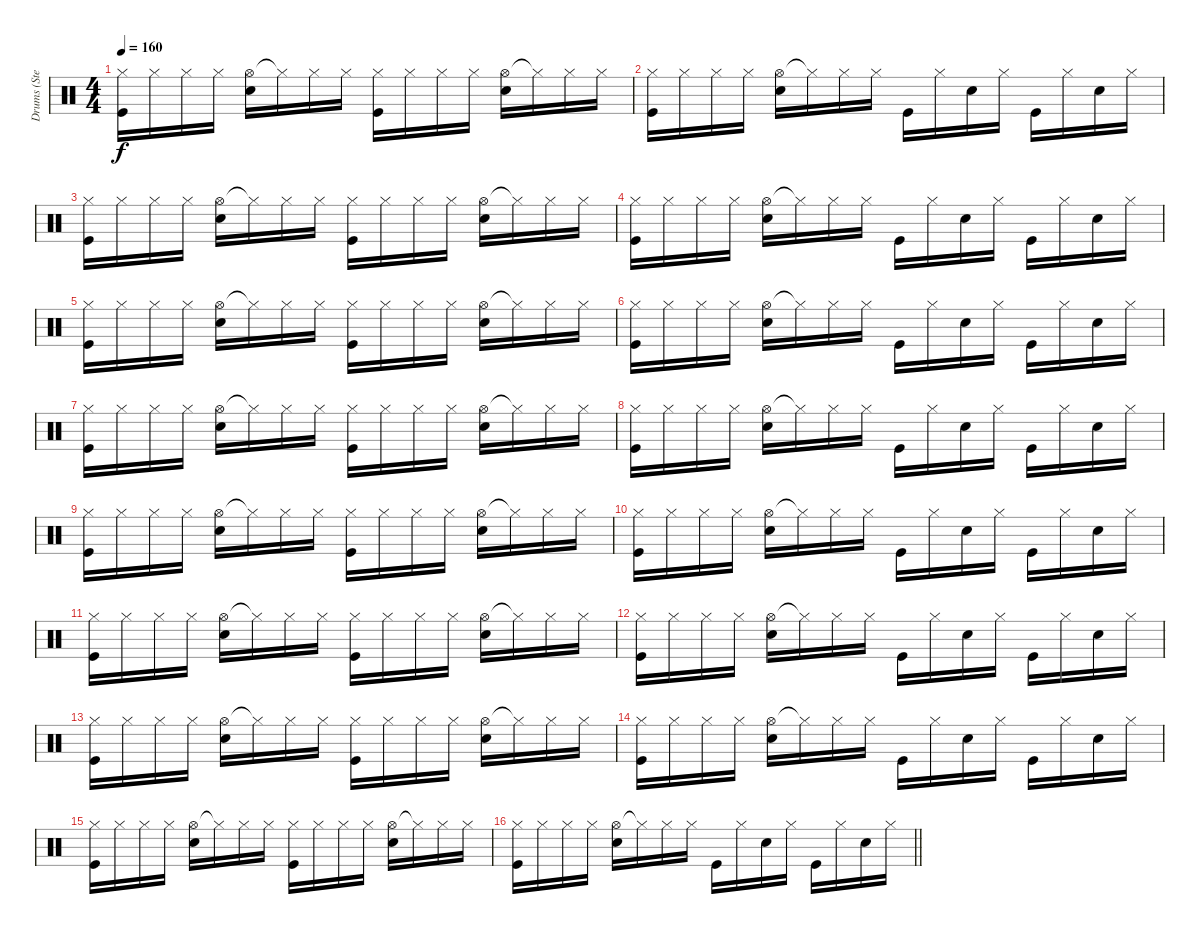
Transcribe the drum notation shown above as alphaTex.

\track ("Drums (Stephen Morris)" "Drums (Ste") {instrument percussion}
\staff {score}
\articulation defaults
\ts (4 4)
\tempo 160
\clef neutral
\ks c
("Hi-Hat (closed)" "Kick (hit)").16{dy f} "Hi-Hat (closed)".16 "Hi-Hat (closed)".16 "Hi-Hat (closed)".16 ("Hi-Hat (open)" "Electric Snare (hit)").16 "Hi-Hat (closed)"{t}.16 "Hi-Hat (closed)".16 "Hi-Hat (closed)".16 ("Hi-Hat (closed)" "Kick (hit)").16 "Hi-Hat (closed)".16 "Hi-Hat (closed)".16 "Hi-Hat (closed)".16 ("Hi-Hat (open)" "Electric Snare (hit)").16 "Hi-Hat (closed)"{t}.16 "Hi-Hat (closed)".16 "Hi-Hat (closed)".16 |
("Hi-Hat (closed)" "Kick (hit)").16 "Hi-Hat (closed)".16 "Hi-Hat (closed)".16 "Hi-Hat (closed)".16 ("Hi-Hat (open)" "Electric Snare (hit)").16 "Hi-Hat (closed)"{t}.16 "Hi-Hat (closed)".16 "Hi-Hat (closed)".16 "Kick (hit)".16 "Hi-Hat (closed)".16 "Electric Snare (hit)".16 "Hi-Hat (closed)".16 "Kick (hit)".16 "Hi-Hat (closed)".16 "Electric Snare (hit)".16 "Hi-Hat (closed)".16 |
("Hi-Hat (closed)" "Kick (hit)").16 "Hi-Hat (closed)".16 "Hi-Hat (closed)".16 "Hi-Hat (closed)".16 ("Hi-Hat (open)" "Electric Snare (hit)").16 "Hi-Hat (closed)"{t}.16 "Hi-Hat (closed)".16 "Hi-Hat (closed)".16 ("Hi-Hat (closed)" "Kick (hit)").16 "Hi-Hat (closed)".16 "Hi-Hat (closed)".16 "Hi-Hat (closed)".16 ("Hi-Hat (open)" "Electric Snare (hit)").16 "Hi-Hat (closed)"{t}.16 "Hi-Hat (closed)".16 "Hi-Hat (closed)".16 |
("Hi-Hat (closed)" "Kick (hit)").16 "Hi-Hat (closed)".16 "Hi-Hat (closed)".16 "Hi-Hat (closed)".16 ("Hi-Hat (open)" "Electric Snare (hit)").16 "Hi-Hat (closed)"{t}.16 "Hi-Hat (closed)".16 "Hi-Hat (closed)".16 "Kick (hit)".16 "Hi-Hat (closed)".16 "Electric Snare (hit)".16 "Hi-Hat (closed)".16 "Kick (hit)".16 "Hi-Hat (closed)".16 "Electric Snare (hit)".16 "Hi-Hat (closed)".16 |
("Hi-Hat (closed)" "Kick (hit)").16 "Hi-Hat (closed)".16 "Hi-Hat (closed)".16 "Hi-Hat (closed)".16 ("Hi-Hat (open)" "Electric Snare (hit)").16 "Hi-Hat (closed)"{t}.16 "Hi-Hat (closed)".16 "Hi-Hat (closed)".16 ("Hi-Hat (closed)" "Kick (hit)").16 "Hi-Hat (closed)".16 "Hi-Hat (closed)".16 "Hi-Hat (closed)".16 ("Hi-Hat (open)" "Electric Snare (hit)").16 "Hi-Hat (closed)"{t}.16 "Hi-Hat (closed)".16 "Hi-Hat (closed)".16 |
("Hi-Hat (closed)" "Kick (hit)").16 "Hi-Hat (closed)".16 "Hi-Hat (closed)".16 "Hi-Hat (closed)".16 ("Hi-Hat (open)" "Electric Snare (hit)").16 "Hi-Hat (closed)"{t}.16 "Hi-Hat (closed)".16 "Hi-Hat (closed)".16 "Kick (hit)".16 "Hi-Hat (closed)".16 "Electric Snare (hit)".16 "Hi-Hat (closed)".16 "Kick (hit)".16 "Hi-Hat (closed)".16 "Electric Snare (hit)".16 "Hi-Hat (closed)".16 |
("Hi-Hat (closed)" "Kick (hit)").16 "Hi-Hat (closed)".16 "Hi-Hat (closed)".16 "Hi-Hat (closed)".16 ("Hi-Hat (open)" "Electric Snare (hit)").16 "Hi-Hat (closed)"{t}.16 "Hi-Hat (closed)".16 "Hi-Hat (closed)".16 ("Hi-Hat (closed)" "Kick (hit)").16 "Hi-Hat (closed)".16 "Hi-Hat (closed)".16 "Hi-Hat (closed)".16 ("Hi-Hat (open)" "Electric Snare (hit)").16 "Hi-Hat (closed)"{t}.16 "Hi-Hat (closed)".16 "Hi-Hat (closed)".16 |
("Hi-Hat (closed)" "Kick (hit)").16 "Hi-Hat (closed)".16 "Hi-Hat (closed)".16 "Hi-Hat (closed)".16 ("Hi-Hat (open)" "Electric Snare (hit)").16 "Hi-Hat (closed)"{t}.16 "Hi-Hat (closed)".16 "Hi-Hat (closed)".16 "Kick (hit)".16 "Hi-Hat (closed)".16 "Electric Snare (hit)".16 "Hi-Hat (closed)".16 "Kick (hit)".16 "Hi-Hat (closed)".16 "Electric Snare (hit)".16 "Hi-Hat (closed)".16 |
("Hi-Hat (closed)" "Kick (hit)").16 "Hi-Hat (closed)".16 "Hi-Hat (closed)".16 "Hi-Hat (closed)".16 ("Hi-Hat (open)" "Electric Snare (hit)").16 "Hi-Hat (closed)"{t}.16 "Hi-Hat (closed)".16 "Hi-Hat (closed)".16 ("Hi-Hat (closed)" "Kick (hit)").16 "Hi-Hat (closed)".16 "Hi-Hat (closed)".16 "Hi-Hat (closed)".16 ("Hi-Hat (open)" "Electric Snare (hit)").16 "Hi-Hat (closed)"{t}.16 "Hi-Hat (closed)".16 "Hi-Hat (closed)".16 |
("Hi-Hat (closed)" "Kick (hit)").16 "Hi-Hat (closed)".16 "Hi-Hat (closed)".16 "Hi-Hat (closed)".16 ("Hi-Hat (open)" "Electric Snare (hit)").16 "Hi-Hat (closed)"{t}.16 "Hi-Hat (closed)".16 "Hi-Hat (closed)".16 "Kick (hit)".16 "Hi-Hat (closed)".16 "Electric Snare (hit)".16 "Hi-Hat (closed)".16 "Kick (hit)".16 "Hi-Hat (closed)".16 "Electric Snare (hit)".16 "Hi-Hat (closed)".16 |
("Hi-Hat (closed)" "Kick (hit)").16 "Hi-Hat (closed)".16 "Hi-Hat (closed)".16 "Hi-Hat (closed)".16 ("Hi-Hat (open)" "Electric Snare (hit)").16 "Hi-Hat (closed)"{t}.16 "Hi-Hat (closed)".16 "Hi-Hat (closed)".16 ("Hi-Hat (closed)" "Kick (hit)").16 "Hi-Hat (closed)".16 "Hi-Hat (closed)".16 "Hi-Hat (closed)".16 ("Hi-Hat (open)" "Electric Snare (hit)").16 "Hi-Hat (closed)"{t}.16 "Hi-Hat (closed)".16 "Hi-Hat (closed)".16 |
("Hi-Hat (closed)" "Kick (hit)").16 "Hi-Hat (closed)".16 "Hi-Hat (closed)".16 "Hi-Hat (closed)".16 ("Hi-Hat (open)" "Electric Snare (hit)").16 "Hi-Hat (closed)"{t}.16 "Hi-Hat (closed)".16 "Hi-Hat (closed)".16 "Kick (hit)".16 "Hi-Hat (closed)".16 "Electric Snare (hit)".16 "Hi-Hat (closed)".16 "Kick (hit)".16 "Hi-Hat (closed)".16 "Electric Snare (hit)".16 "Hi-Hat (closed)".16 |
("Hi-Hat (closed)" "Kick (hit)").16 "Hi-Hat (closed)".16 "Hi-Hat (closed)".16 "Hi-Hat (closed)".16 ("Hi-Hat (open)" "Electric Snare (hit)").16 "Hi-Hat (closed)"{t}.16 "Hi-Hat (closed)".16 "Hi-Hat (closed)".16 ("Hi-Hat (closed)" "Kick (hit)").16 "Hi-Hat (closed)".16 "Hi-Hat (closed)".16 "Hi-Hat (closed)".16 ("Hi-Hat (open)" "Electric Snare (hit)").16 "Hi-Hat (closed)"{t}.16 "Hi-Hat (closed)".16 "Hi-Hat (closed)".16 |
("Hi-Hat (closed)" "Kick (hit)").16 "Hi-Hat (closed)".16 "Hi-Hat (closed)".16 "Hi-Hat (closed)".16 ("Hi-Hat (open)" "Electric Snare (hit)").16 "Hi-Hat (closed)"{t}.16 "Hi-Hat (closed)".16 "Hi-Hat (closed)".16 "Kick (hit)".16 "Hi-Hat (closed)".16 "Electric Snare (hit)".16 "Hi-Hat (closed)".16 "Kick (hit)".16 "Hi-Hat (closed)".16 "Electric Snare (hit)".16 "Hi-Hat (closed)".16 |
("Hi-Hat (closed)" "Kick (hit)").16 "Hi-Hat (closed)".16 "Hi-Hat (closed)".16 "Hi-Hat (closed)".16 ("Hi-Hat (open)" "Electric Snare (hit)").16 "Hi-Hat (closed)"{t}.16 "Hi-Hat (closed)".16 "Hi-Hat (closed)".16 ("Hi-Hat (closed)" "Kick (hit)").16 "Hi-Hat (closed)".16 "Hi-Hat (closed)".16 "Hi-Hat (closed)".16 ("Hi-Hat (open)" "Electric Snare (hit)").16 "Hi-Hat (closed)"{t}.16 "Hi-Hat (closed)".16 "Hi-Hat (closed)".16 |
\barLineRight lightlight
("Hi-Hat (closed)" "Kick (hit)").16 "Hi-Hat (closed)".16 "Hi-Hat (closed)".16 "Hi-Hat (closed)".16 ("Hi-Hat (open)" "Electric Snare (hit)").16 "Hi-Hat (closed)"{t}.16 "Hi-Hat (closed)".16 "Hi-Hat (closed)".16 "Kick (hit)".16 "Hi-Hat (closed)".16 "Electric Snare (hit)".16 "Hi-Hat (closed)".16 "Kick (hit)".16 "Hi-Hat (closed)".16 "Electric Snare (hit)".16 "Hi-Hat (closed)".16
